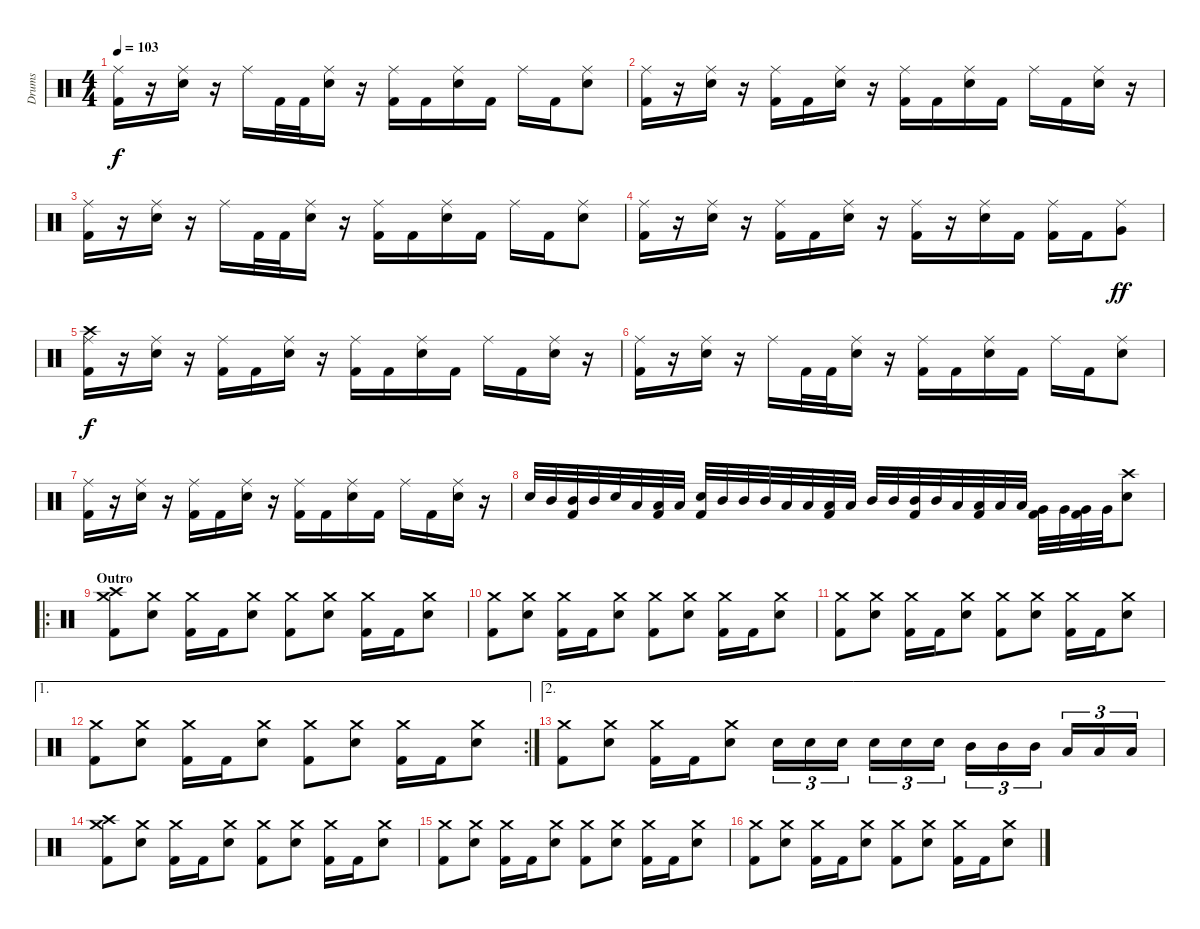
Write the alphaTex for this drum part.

\track ("Drums" "Drums") {instrument percussion}
\staff {score}
\articulation defaults
\ts (4 4)
\tempo 103
\clef neutral
\ks c
("Ride (middle)" "Kick (hit) 2").16{dy f} r.16 ("Ride (middle)" "Electric Snare (hit)").16 r.16 "Ride (middle)".16 "Kick (hit) 2".32 "Kick (hit) 2".32 ("Ride (middle)" "Electric Snare (hit)").16 r.16 ("Ride (middle)" "Kick (hit) 2").16 "Kick (hit) 2".16 ("Ride (middle)" "Electric Snare (hit)").16 "Kick (hit) 2".16 "Ride (middle)".16 "Kick (hit) 2".16 ("Ride (middle)" "Electric Snare (hit)").8 |
("Ride (middle)" "Kick (hit) 2").16 r.16 ("Ride (middle)" "Electric Snare (hit)").16 r.16 ("Ride (middle)" "Kick (hit) 2").16 "Kick (hit) 2".16 ("Ride (middle)" "Electric Snare (hit)").16 r.16 ("Ride (middle)" "Kick (hit) 2").16 "Kick (hit) 2".16 ("Ride (middle)" "Electric Snare (hit)").16 "Kick (hit) 2".16 "Ride (middle)".16 "Kick (hit) 2".16 ("Ride (middle)" "Electric Snare (hit)").16 r.16 |
("Ride (middle)" "Kick (hit) 2").16 r.16 ("Ride (middle)" "Electric Snare (hit)").16 r.16 "Ride (middle)".16 "Kick (hit) 2".32 "Kick (hit) 2".32 ("Ride (middle)" "Electric Snare (hit)").16 r.16 ("Ride (middle)" "Kick (hit) 2").16 "Kick (hit) 2".16 ("Ride (middle)" "Electric Snare (hit)").16 "Kick (hit) 2".16 "Ride (middle)".16 "Kick (hit) 2".16 ("Ride (middle)" "Electric Snare (hit)").8 |
("Ride (middle)" "Kick (hit) 2").16 r.16 ("Ride (middle)" "Electric Snare (hit)").16 r.16 ("Ride (middle)" "Kick (hit) 2").16 "Kick (hit) 2".16 ("Ride (middle)" "Electric Snare (hit)").16 r.16 ("Ride (middle)" "Kick (hit) 2").16 r.16 ("Ride (middle)" "Electric Snare (hit)").16 "Kick (hit) 2".16 ("Ride (middle)" "Kick (hit) 2").16 "Kick (hit) 2".16 ("Ride (middle)" "Very Low Tom (hit)").8{dy ff} |
("Crash high (hit)" "Ride (middle)" "Kick (hit) 2").16{dy f} r.16 ("Ride (middle)" "Electric Snare (hit)").16 r.16 ("Ride (middle)" "Kick (hit) 2").16 "Kick (hit) 2".16 ("Ride (middle)" "Electric Snare (hit)").16 r.16 ("Ride (middle)" "Kick (hit) 2").16 "Kick (hit) 2".16 ("Ride (middle)" "Electric Snare (hit)").16 "Kick (hit) 2".16 "Ride (middle)".16 "Kick (hit) 2".16 ("Ride (middle)" "Electric Snare (hit)").16 r.16 |
("Ride (middle)" "Kick (hit) 2").16 r.16 ("Ride (middle)" "Electric Snare (hit)").16 r.16 "Ride (middle)".16 "Kick (hit) 2".32 "Kick (hit) 2".32 ("Ride (middle)" "Electric Snare (hit)").16 r.16 ("Ride (middle)" "Kick (hit) 2").16 "Kick (hit) 2".16 ("Ride (middle)" "Electric Snare (hit)").16 "Kick (hit) 2".16 "Ride (middle)".16 "Kick (hit) 2".16 ("Ride (middle)" "Electric Snare (hit)").8 |
("Ride (middle)" "Kick (hit) 2").16 r.16 ("Ride (middle)" "Electric Snare (hit)").16 r.16 ("Ride (middle)" "Kick (hit) 2").16 "Kick (hit) 2".16 ("Ride (middle)" "Electric Snare (hit)").16 r.16 ("Ride (middle)" "Kick (hit) 2").16 "Kick (hit) 2".16 ("Ride (middle)" "Electric Snare (hit)").16 "Kick (hit) 2".16 "Ride (middle)".16 "Kick (hit) 2".16 ("Ride (middle)" "Electric Snare (hit)").16 r.16 |
"Electric Snare (hit)".32 "Mid Tom (hit)".32 ("Mid Tom (hit)" "Kick (hit) 2").32 "Mid Tom (hit)".32 "Electric Snare (hit)".32 "Low Tom (hit)".32 ("Low Tom (hit)" "Kick (hit) 2").32 "Low Tom (hit)".32 ("Electric Snare (hit)" "Kick (hit) 2").32 "Mid Tom (hit)".32 "Mid Tom (hit)".32 "Mid Tom (hit)".32 "Low Tom (hit)".32 "Low Tom (hit)".32 ("Low Tom (hit)" "Kick (hit) 2").32 "Low Tom (hit)".32 "Mid Tom (hit)".32 "Mid Tom (hit)".32 ("Mid Tom (hit)" "Kick (hit) 2").32 "Mid Tom (hit)".32 "Low Tom (hit)".32 ("Low Tom (hit)" "Kick (hit) 2").32 "Low Tom (hit)".32 "Low Tom (hit)".32 ("Very Low Tom (hit)" "Kick (hit) 2").32 "Very Low Tom (hit)".32 ("Very Low Tom (hit)" "Kick (hit) 2").32 "Very Low Tom (hit)".32 ("Crash high (hit)" "Electric Snare (hit)").8 |
\ro
\section ("" "Outro")
("Crash medium (hit)" "Crash high (hit)" "Kick (hit) 2").8 ("Crash medium (hit)" "Electric Snare (hit)").8 ("Crash medium (hit)" "Kick (hit) 2").16 "Kick (hit) 2".16 ("Crash medium (hit)" "Electric Snare (hit)").8 ("Crash medium (hit)" "Kick (hit) 2").8 ("Crash medium (hit)" "Electric Snare (hit)").8 ("Crash medium (hit)" "Kick (hit) 2").16 "Kick (hit) 2".16 ("Crash medium (hit)" "Electric Snare (hit)").8 |
("Crash medium (hit)" "Kick (hit) 2").8 ("Crash medium (hit)" "Electric Snare (hit)").8 ("Crash medium (hit)" "Kick (hit) 2").16 "Kick (hit) 2".16 ("Crash medium (hit)" "Electric Snare (hit)").8 ("Crash medium (hit)" "Kick (hit) 2").8 ("Crash medium (hit)" "Electric Snare (hit)").8 ("Crash medium (hit)" "Kick (hit) 2").16 "Kick (hit) 2".16 ("Crash medium (hit)" "Electric Snare (hit)").8 |
("Crash medium (hit)" "Kick (hit) 2").8 ("Crash medium (hit)" "Electric Snare (hit)").8 ("Crash medium (hit)" "Kick (hit) 2").16 "Kick (hit) 2".16 ("Crash medium (hit)" "Electric Snare (hit)").8 ("Crash medium (hit)" "Kick (hit) 2").8 ("Crash medium (hit)" "Electric Snare (hit)").8 ("Crash medium (hit)" "Kick (hit) 2").16 "Kick (hit) 2".16 ("Crash medium (hit)" "Electric Snare (hit)").8 |
\ae 1
\rc 2
("Crash medium (hit)" "Kick (hit) 2").8 ("Crash medium (hit)" "Electric Snare (hit)").8 ("Crash medium (hit)" "Kick (hit) 2").16 "Kick (hit) 2".16 ("Crash medium (hit)" "Electric Snare (hit)").8 ("Crash medium (hit)" "Kick (hit) 2").8 ("Crash medium (hit)" "Electric Snare (hit)").8 ("Crash medium (hit)" "Kick (hit) 2").16 "Kick (hit) 2".16 ("Crash medium (hit)" "Electric Snare (hit)").8 |
\ae 2
("Crash medium (hit)" "Kick (hit) 2").8 ("Crash medium (hit)" "Electric Snare (hit)").8 ("Crash medium (hit)" "Kick (hit) 2").16 "Kick (hit) 2".16 ("Crash medium (hit)" "Electric Snare (hit)").8 "Electric Snare (hit)".16{tu (3 2)} "Electric Snare (hit)".16{tu (3 2)} "Electric Snare (hit)".16{tu (3 2)} "Electric Snare (hit)".16{tu (3 2)} "Electric Snare (hit)".16{tu (3 2)} "Electric Snare (hit)".16{tu (3 2)} "Mid Tom (hit)".16{tu (3 2)} "Mid Tom (hit)".16{tu (3 2)} "Mid Tom (hit)".16{tu (3 2)} "Low Tom (hit)".16{tu (3 2)} "Low Tom (hit)".16{tu (3 2)} "Low Tom (hit)".16{tu (3 2)} |
("Crash medium (hit)" "Crash high (hit)" "Kick (hit) 2").8 ("Crash medium (hit)" "Electric Snare (hit)").8 ("Crash medium (hit)" "Kick (hit) 2").16 "Kick (hit) 2".16 ("Crash medium (hit)" "Electric Snare (hit)").8 ("Crash medium (hit)" "Kick (hit) 2").8 ("Crash medium (hit)" "Electric Snare (hit)").8 ("Crash medium (hit)" "Kick (hit) 2").16 "Kick (hit) 2".16 ("Crash medium (hit)" "Electric Snare (hit)").8 |
("Crash medium (hit)" "Kick (hit) 2").8 ("Crash medium (hit)" "Electric Snare (hit)").8 ("Crash medium (hit)" "Kick (hit) 2").16 "Kick (hit) 2".16 ("Crash medium (hit)" "Electric Snare (hit)").8 ("Crash medium (hit)" "Kick (hit) 2").8 ("Crash medium (hit)" "Electric Snare (hit)").8 ("Crash medium (hit)" "Kick (hit) 2").16 "Kick (hit) 2".16 ("Crash medium (hit)" "Electric Snare (hit)").8 |
("Crash medium (hit)" "Kick (hit) 2").8 ("Crash medium (hit)" "Electric Snare (hit)").8 ("Crash medium (hit)" "Kick (hit) 2").16 "Kick (hit) 2".16 ("Crash medium (hit)" "Electric Snare (hit)").8 ("Crash medium (hit)" "Kick (hit) 2").8 ("Crash medium (hit)" "Electric Snare (hit)").8 ("Crash medium (hit)" "Kick (hit) 2").16 "Kick (hit) 2".16 ("Crash medium (hit)" "Electric Snare (hit)").8
